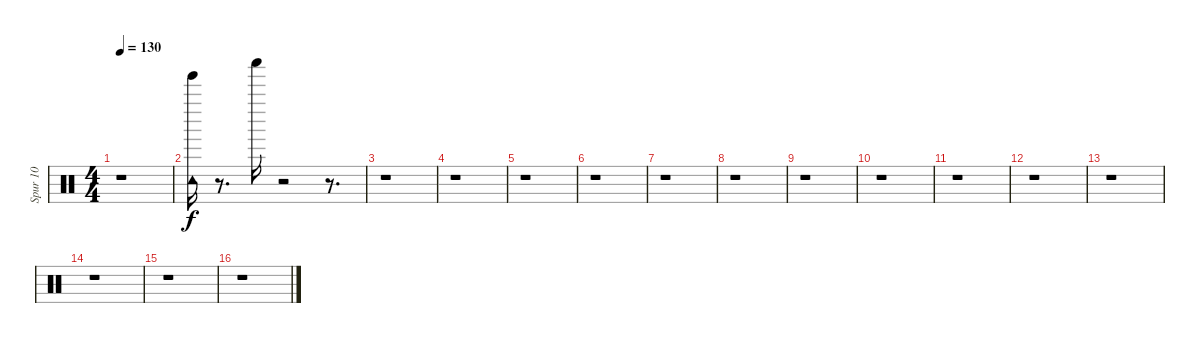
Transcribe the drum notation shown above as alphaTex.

\track ("Spur 10" "Spur 10") {instrument percussion}
\staff {score}
\articulation defaults
\ts (4 4)
\tempo 130
\clef neutral
\ks c
r.1{dy f} |
("Tambourine (hit)" "Tinkle Bell (hit)").16 r.8{d} "Shaker (hit)".16 r.2 r.8{d} |
r.1 |
r.1 |
r.1 |
r.1 |
r.1 |
r.1 |
r.1 |
r.1 |
r.1 |
r.1 |
r.1 |
r.1 |
r.1 |
r.1
